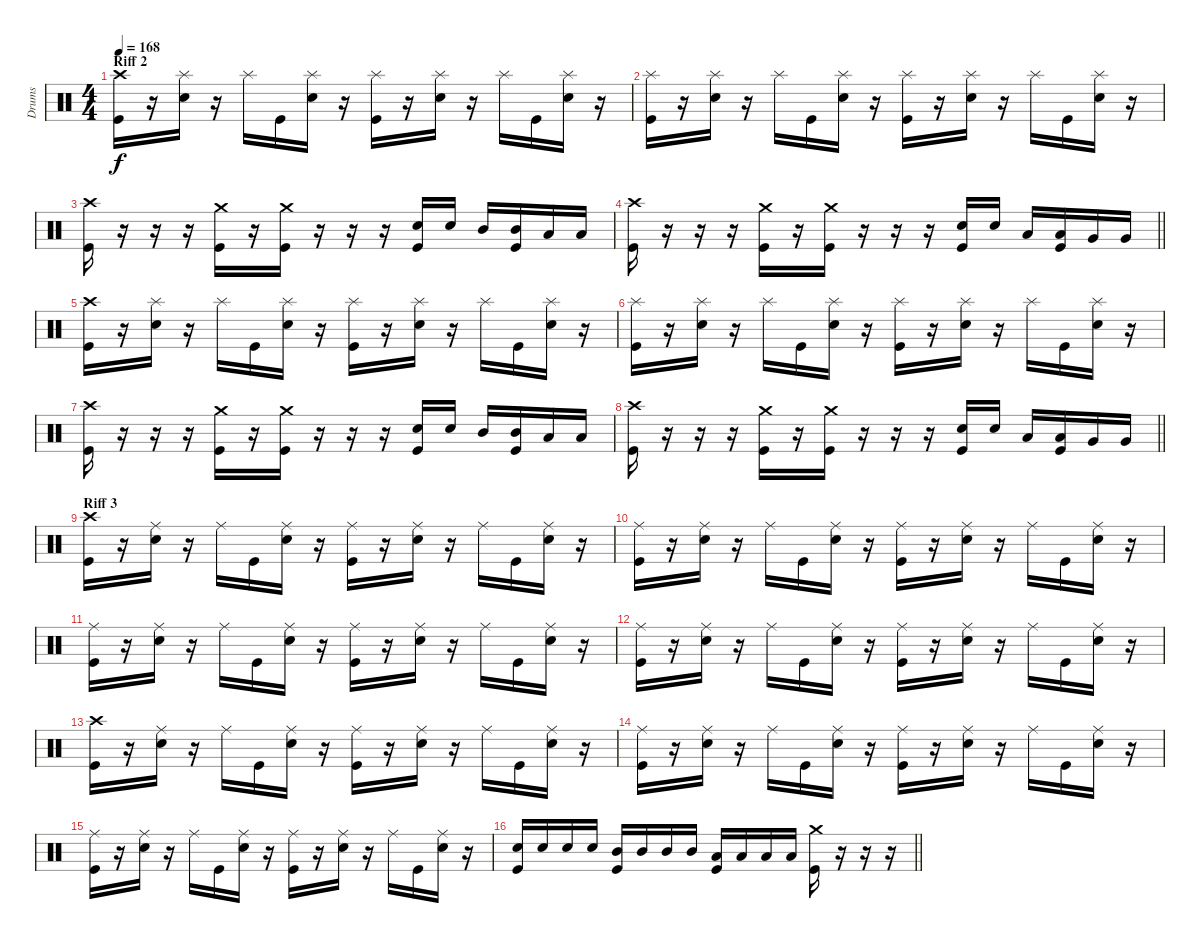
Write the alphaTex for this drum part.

\track ("Drums" "Drums") {instrument percussion}
\staff {score}
\articulation defaults
\ts (4 4)
\section ("" "Riff 2")
\tempo 168
\clef neutral
\ks c
("Crash high (hit)" "Kick (hit)").16{dy f} r.16 ("Splash (hit)" "Electric Snare (hit)").16 r.16 "Splash (hit)".16 "Kick (hit)".16 ("Splash (hit)" "Electric Snare (hit)").16 r.16 ("Splash (hit)" "Kick (hit)").16 r.16 ("Splash (hit)" "Electric Snare (hit)").16 r.16 "Splash (hit)".16 "Kick (hit)".16 ("Splash (hit)" "Electric Snare (hit)").16 r.16 |
("Splash (hit)" "Kick (hit)").16 r.16 ("Splash (hit)" "Electric Snare (hit)").16 r.16 "Splash (hit)".16 "Kick (hit)".16 ("Splash (hit)" "Electric Snare (hit)").16 r.16 ("Splash (hit)" "Kick (hit)").16 r.16 ("Splash (hit)" "Electric Snare (hit)").16 r.16 "Splash (hit)".16 "Kick (hit)".16 ("Splash (hit)" "Electric Snare (hit)").16 r.16 |
("Crash high (hit)" "Kick (hit)").16 r.16 r.16 r.16 ("Crash medium (hit)" "Kick (hit)").16 r.16 ("Crash medium (hit)" "Kick (hit)").16 r.16 r.16 r.16 ("Electric Snare (hit)" "Kick (hit)").16 "Electric Snare (hit)".16 "Mid Tom (hit)".16 ("Mid Tom (hit)" "Kick (hit)").16 "Low Tom (hit)".16 "Low Tom (hit)".16 |
\barLineRight lightlight
("Crash high (hit)" "Kick (hit)").16 r.16 r.16 r.16 ("Crash medium (hit)" "Kick (hit)").16 r.16 ("Crash medium (hit)" "Kick (hit)").16 r.16 r.16 r.16 ("Electric Snare (hit)" "Kick (hit)").16 "Electric Snare (hit)".16 "Low Tom (hit)".16 ("Low Tom (hit)" "Kick (hit)").16 "Very Low Tom (hit)".16 "Very Low Tom (hit)".16 |
("Crash high (hit)" "Kick (hit)").16 r.16 ("Splash (hit)" "Electric Snare (hit)").16 r.16 "Splash (hit)".16 "Kick (hit)".16 ("Splash (hit)" "Electric Snare (hit)").16 r.16 ("Splash (hit)" "Kick (hit)").16 r.16 ("Splash (hit)" "Electric Snare (hit)").16 r.16 "Splash (hit)".16 "Kick (hit)".16 ("Splash (hit)" "Electric Snare (hit)").16 r.16 |
("Splash (hit)" "Kick (hit)").16 r.16 ("Splash (hit)" "Electric Snare (hit)").16 r.16 "Splash (hit)".16 "Kick (hit)".16 ("Splash (hit)" "Electric Snare (hit)").16 r.16 ("Splash (hit)" "Kick (hit)").16 r.16 ("Splash (hit)" "Electric Snare (hit)").16 r.16 "Splash (hit)".16 "Kick (hit)".16 ("Splash (hit)" "Electric Snare (hit)").16 r.16 |
("Crash high (hit)" "Kick (hit)").16 r.16 r.16 r.16 ("Crash medium (hit)" "Kick (hit)").16 r.16 ("Crash medium (hit)" "Kick (hit)").16 r.16 r.16 r.16 ("Electric Snare (hit)" "Kick (hit)").16 "Electric Snare (hit)".16 "Mid Tom (hit)".16 ("Mid Tom (hit)" "Kick (hit)").16 "Low Tom (hit)".16 "Low Tom (hit)".16 |
\barLineRight lightlight
("Crash high (hit)" "Kick (hit)").16 r.16 r.16 r.16 ("Crash medium (hit)" "Kick (hit)").16 r.16 ("Crash medium (hit)" "Kick (hit)").16 r.16 r.16 r.16 ("Electric Snare (hit)" "Kick (hit)").16 "Electric Snare (hit)".16 "Low Tom (hit)".16 ("Low Tom (hit)" "Kick (hit)").16 "Very Low Tom (hit)".16 "Very Low Tom (hit)".16 |
\section ("" "Riff 3")
("Crash high (hit)" "Kick (hit)").16 r.16 ("Ride (middle)" "Electric Snare (hit)").16 r.16 "Ride (middle)".16 "Kick (hit)".16 ("Ride (middle)" "Electric Snare (hit)").16 r.16 ("Ride (middle)" "Kick (hit)").16 r.16 ("Ride (middle)" "Electric Snare (hit)").16 r.16 "Ride (middle)".16 "Kick (hit)".16 ("Ride (middle)" "Electric Snare (hit)").16 r.16 |
("Ride (middle)" "Kick (hit)").16 r.16 ("Ride (middle)" "Electric Snare (hit)").16 r.16 "Ride (middle)".16 "Kick (hit)".16 ("Ride (middle)" "Electric Snare (hit)").16 r.16 ("Ride (middle)" "Kick (hit)").16 r.16 ("Ride (middle)" "Electric Snare (hit)").16 r.16 "Ride (middle)".16 "Kick (hit)".16 ("Ride (middle)" "Electric Snare (hit)").16 r.16 |
("Ride (middle)" "Kick (hit)").16 r.16 ("Ride (middle)" "Electric Snare (hit)").16 r.16 "Ride (middle)".16 "Kick (hit)".16 ("Ride (middle)" "Electric Snare (hit)").16 r.16 ("Ride (middle)" "Kick (hit)").16 r.16 ("Ride (middle)" "Electric Snare (hit)").16 r.16 "Ride (middle)".16 "Kick (hit)".16 ("Ride (middle)" "Electric Snare (hit)").16 r.16 |
("Ride (middle)" "Kick (hit)").16 r.16 ("Ride (middle)" "Electric Snare (hit)").16 r.16 "Ride (middle)".16 "Kick (hit)".16 ("Ride (middle)" "Electric Snare (hit)").16 r.16 ("Ride (middle)" "Kick (hit)").16 r.16 ("Ride (middle)" "Electric Snare (hit)").16 r.16 "Ride (middle)".16 "Kick (hit)".16 ("Ride (middle)" "Electric Snare (hit)").16 r.16 |
("Crash high (hit)" "Kick (hit)").16 r.16 ("Ride (middle)" "Electric Snare (hit)").16 r.16 "Ride (middle)".16 "Kick (hit)".16 ("Ride (middle)" "Electric Snare (hit)").16 r.16 ("Ride (middle)" "Kick (hit)").16 r.16 ("Ride (middle)" "Electric Snare (hit)").16 r.16 "Ride (middle)".16 "Kick (hit)".16 ("Ride (middle)" "Electric Snare (hit)").16 r.16 |
("Ride (middle)" "Kick (hit)").16 r.16 ("Ride (middle)" "Electric Snare (hit)").16 r.16 "Ride (middle)".16 "Kick (hit)".16 ("Ride (middle)" "Electric Snare (hit)").16 r.16 ("Ride (middle)" "Kick (hit)").16 r.16 ("Ride (middle)" "Electric Snare (hit)").16 r.16 "Ride (middle)".16 "Kick (hit)".16 ("Ride (middle)" "Electric Snare (hit)").16 r.16 |
("Ride (middle)" "Kick (hit)").16 r.16 ("Ride (middle)" "Electric Snare (hit)").16 r.16 "Ride (middle)".16 "Kick (hit)".16 ("Ride (middle)" "Electric Snare (hit)").16 r.16 ("Ride (middle)" "Kick (hit)").16 r.16 ("Ride (middle)" "Electric Snare (hit)").16 r.16 "Ride (middle)".16 "Kick (hit)".16 ("Ride (middle)" "Electric Snare (hit)").16 r.16 |
\barLineRight lightlight
("Electric Snare (hit)" "Kick (hit)").16 "Electric Snare (hit)".16 "Electric Snare (hit)".16 "Electric Snare (hit)".16 ("Mid Tom (hit)" "Kick (hit)").16 "Mid Tom (hit)".16 "Mid Tom (hit)".16 "Mid Tom (hit)".16 ("Low Tom (hit)" "Kick (hit)").16 "Low Tom (hit)".16 "Low Tom (hit)".16 "Low Tom (hit)".16 ("Crash medium (hit)" "Kick (hit)").16 r.16 r.16 r.16
